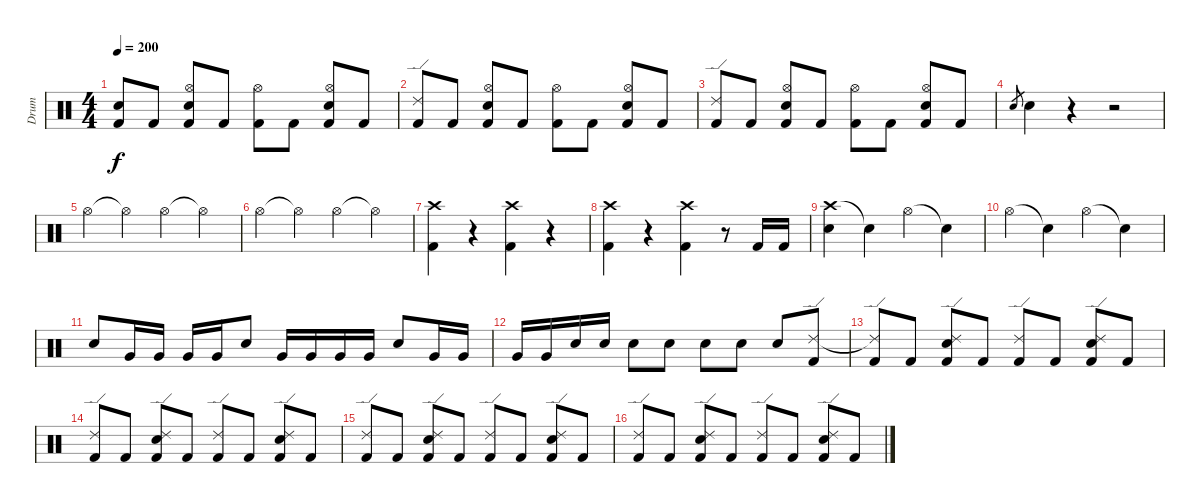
\track ("Drum" "Drum") {instrument percussion}
\staff {score}
\articulation defaults
\ts (4 4)
\tempo 200
\clef neutral
\ks c
("Snare (hit)"{t} "Kick (hit) 2").8{dy f} "Kick (hit) 2".8 ("Hi-Hat (open)" "Electric Snare (hit)" "Kick (hit) 2").8 "Kick (hit) 2".8 ("Hi-Hat (open)" "Kick (hit) 2").8 "Kick (hit) 2".8 ("Hi-Hat (open)" "Electric Snare (hit)" "Kick (hit) 2").8 "Kick (hit) 2".8 |
("Ride (edge) 2" "Kick (hit) 2").8 "Kick (hit) 2".8 ("Hi-Hat (open)" "Electric Snare (hit)" "Kick (hit) 2").8 "Kick (hit) 2".8 ("Hi-Hat (open)" "Kick (hit) 2").8 "Kick (hit) 2".8 ("Hi-Hat (open)" "Electric Snare (hit)" "Kick (hit) 2").8 "Kick (hit) 2".8 |
("Ride (edge) 2" "Kick (hit) 2").8 "Kick (hit) 2".8 ("Hi-Hat (open)" "Electric Snare (hit)" "Kick (hit) 2").8 "Kick (hit) 2".8 ("Hi-Hat (open)" "Kick (hit) 2").8 "Kick (hit) 2".8 ("Hi-Hat (open)" "Electric Snare (hit)" "Kick (hit) 2").8 "Kick (hit) 2".8 |
"Electric Snare (hit)".8{gr} "Electric Snare (hit)".4 r.4 r.2 |
"Hi-Hat (open)".4 "Hi-Hat (open)"{t}.4 "Hi-Hat (open)".4 "Hi-Hat (open)"{t}.4 |
"Hi-Hat (open)".4 "Hi-Hat (open)"{t}.4 "Hi-Hat (open)".4 "Hi-Hat (open)"{t}.4 |
("Crash high (hit)" "Kick (hit) 2").4 r.4 ("Crash high (hit)" "Kick (hit) 2").4 r.4 |
("Crash high (hit)" "Kick (hit) 2").4 r.4 ("Crash high (hit)" "Kick (hit) 2").4 r.8 "Kick (hit) 2".16 "Kick (hit) 2".16 |
("Crash high (hit)" "Electric Snare (hit)").4 "Snare (hit)"{t}.4 "Hi-Hat (open)".4 "Snare (hit)"{t}.4 |
"Hi-Hat (open)".4 "Snare (hit)"{t}.4 "Hi-Hat (open)".4 "Snare (hit)"{t}.4 |
"Electric Snare (hit)".8 "Very Low Tom (hit)".16 "Very Low Tom (hit)".16 "Very Low Tom (hit)".16 "Very Low Tom (hit)".16 "Electric Snare (hit)".8 "Very Low Tom (hit)".16 "Very Low Tom (hit)".16 "Very Low Tom (hit)".16 "Very Low Tom (hit)".16 "Electric Snare (hit)".8 "Very Low Tom (hit)".16 "Very Low Tom (hit)".16 |
"Very Low Tom (hit)".16 "Very Low Tom (hit)".16 "Electric Snare (hit)".16 "Electric Snare (hit)".16 "Electric Snare (hit)".8 "Electric Snare (hit)".8 "Electric Snare (hit)".8 "Electric Snare (hit)".8 "Electric Snare (hit)".8 ("Ride (edge) 2" "Kick (hit) 2").8 |
("Ride (edge) 2"{t} "Kick (hit) 2").8 "Kick (hit) 2".8 ("Ride (edge) 2" "Electric Snare (hit)" "Kick (hit) 2").8 "Kick (hit) 2".8 ("Ride (edge) 2" "Kick (hit) 2").8 "Kick (hit) 2".8 ("Ride (edge) 2" "Electric Snare (hit)" "Kick (hit) 2").8 "Kick (hit) 2".8 |
("Ride (edge) 2" "Kick (hit) 2").8 "Kick (hit) 2".8 ("Ride (edge) 2" "Electric Snare (hit)" "Kick (hit) 2").8 "Kick (hit) 2".8 ("Ride (edge) 2" "Kick (hit) 2").8 "Kick (hit) 2".8 ("Ride (edge) 2" "Electric Snare (hit)" "Kick (hit) 2").8 "Kick (hit) 2".8 |
("Ride (edge) 2" "Kick (hit) 2").8 "Kick (hit) 2".8 ("Ride (edge) 2" "Electric Snare (hit)" "Kick (hit) 2").8 "Kick (hit) 2".8 ("Ride (edge) 2" "Kick (hit) 2").8 "Kick (hit) 2".8 ("Ride (edge) 2" "Electric Snare (hit)" "Kick (hit) 2").8 "Kick (hit) 2".8 |
("Ride (edge) 2" "Kick (hit) 2").8 "Kick (hit) 2".8 ("Ride (edge) 2" "Electric Snare (hit)" "Kick (hit) 2").8 "Kick (hit) 2".8 ("Ride (edge) 2" "Kick (hit) 2").8 "Kick (hit) 2".8 ("Ride (edge) 2" "Electric Snare (hit)" "Kick (hit) 2").8 "Kick (hit) 2".8
